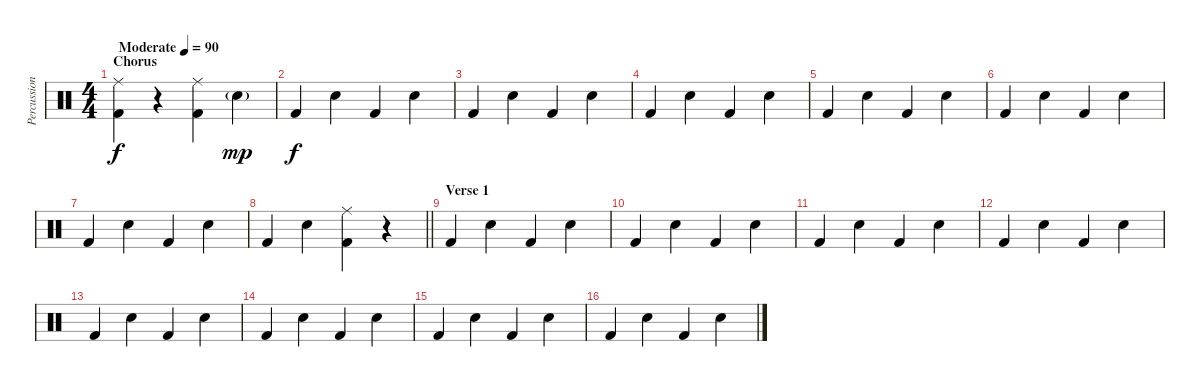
\track ("Percussion" "Percussion") {instrument percussion}
\staff {score}
\articulation defaults
\ts (4 4)
\section ("" "Chorus")
\tempo (90 "Moderate")
\clef neutral
\ks c
("Ride (middle)" "Kick (hit) 2").4{dy f} r.4 ("Ride (middle)" "Kick (hit) 2").4 "Snare (hit) 2"{g}.4{dy mp} |
"Kick (hit) 2".4{dy f} "Snare (hit) 2".4 "Kick (hit) 2".4 "Snare (hit) 2".4 |
"Kick (hit) 2".4 "Snare (hit) 2".4 "Kick (hit) 2".4 "Snare (hit) 2".4 |
"Kick (hit) 2".4 "Snare (hit) 2".4 "Kick (hit) 2".4 "Snare (hit) 2".4 |
"Kick (hit) 2".4 "Snare (hit) 2".4 "Kick (hit) 2".4 "Snare (hit) 2".4 |
"Kick (hit) 2".4 "Snare (hit) 2".4 "Kick (hit) 2".4 "Snare (hit) 2".4 |
"Kick (hit) 2".4 "Snare (hit) 2".4 "Kick (hit) 2".4 "Snare (hit) 2".4 |
\barLineRight lightlight "Kick (hit) 2".4 "Snare (hit) 2".4
("Ride (middle)" "Kick (hit) 2").4 r.4 |
\section ("" "Verse 1")
"Kick (hit) 2".4 "Snare (hit) 2".4 "Kick (hit) 2".4 "Snare (hit) 2".4 |
"Kick (hit) 2".4 "Snare (hit) 2".4 "Kick (hit) 2".4 "Snare (hit) 2".4 |
"Kick (hit) 2".4 "Snare (hit) 2".4 "Kick (hit) 2".4 "Snare (hit) 2".4 |
"Kick (hit) 2".4 "Snare (hit) 2".4 "Kick (hit) 2".4 "Snare (hit) 2".4 |
"Kick (hit) 2".4 "Snare (hit) 2".4 "Kick (hit) 2".4 "Snare (hit) 2".4 |
"Kick (hit) 2".4 "Snare (hit) 2".4 "Kick (hit) 2".4 "Snare (hit) 2".4 |
"Kick (hit) 2".4 "Snare (hit) 2".4 "Kick (hit) 2".4 "Snare (hit) 2".4 |
"Kick (hit) 2".4 "Snare (hit) 2".4 "Kick (hit) 2".4 "Snare (hit) 2".4
